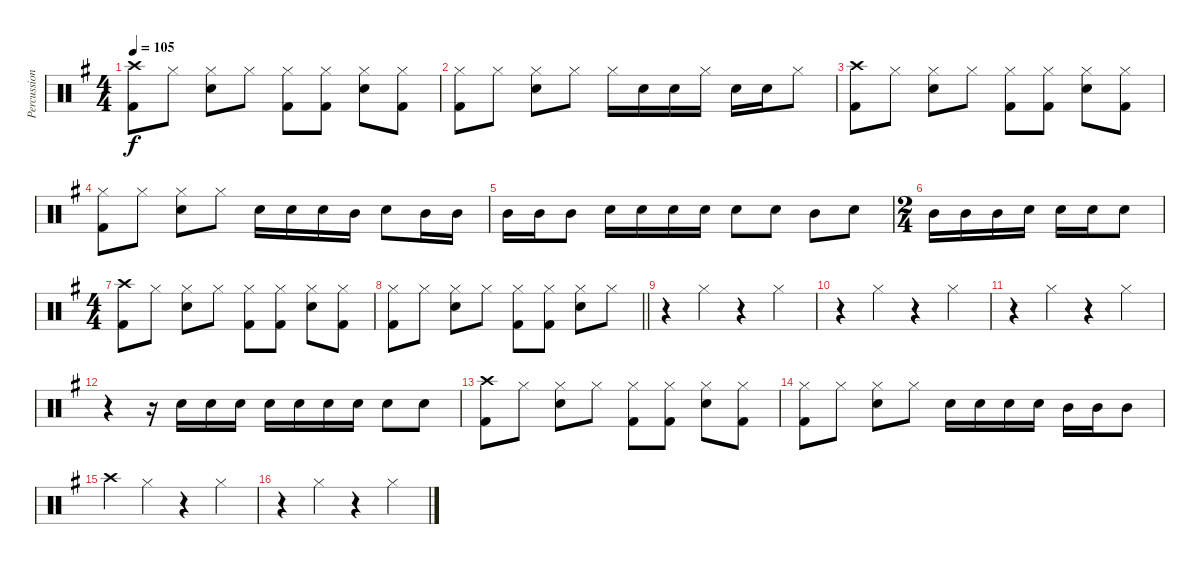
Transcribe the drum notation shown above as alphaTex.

\track ("Percussion" "Percussion") {instrument percussion}
\staff {score}
\articulation defaults
\ts (4 4)
\tempo 105
\clef neutral
\ks g
("Crash high (hit)" "Kick (hit) 2").8{dy f} "Hi-Hat (closed)".8 ("Hi-Hat (closed)" "Snare (hit) 2").8 "Hi-Hat (closed)".8 ("Hi-Hat (closed)" "Kick (hit) 2").8 ("Hi-Hat (closed)" "Kick (hit) 2").8 ("Hi-Hat (closed)" "Snare (hit) 2").8 ("Hi-Hat (closed)" "Kick (hit) 2").8 |
("Hi-Hat (closed)" "Kick (hit) 2").8 "Hi-Hat (closed)".8 ("Hi-Hat (closed)" "Snare (hit) 2").8 "Hi-Hat (closed)".8 "Hi-Hat (closed)".16 "Snare (hit) 2".16 "Snare (hit) 2".16 "Hi-Hat (closed)".16 "Snare (hit) 2".16 "Snare (hit) 2".16 "Hi-Hat (closed)".8 |
("Crash high (hit)" "Kick (hit) 2").8 "Hi-Hat (closed)".8 ("Hi-Hat (closed)" "Snare (hit) 2").8 "Hi-Hat (closed)".8 ("Hi-Hat (closed)" "Kick (hit) 2").8 ("Hi-Hat (closed)" "Kick (hit) 2").8 ("Hi-Hat (closed)" "Snare (hit) 2").8 ("Hi-Hat (closed)" "Kick (hit) 2").8 |
("Hi-Hat (closed)" "Kick (hit) 2").8 "Hi-Hat (closed)".8 ("Hi-Hat (closed)" "Snare (hit) 2").8 "Hi-Hat (closed)".8 "Snare (hit) 2".16 "Snare (hit) 2".16 "Snare (hit) 2".16 "Mid Tom (hit)".16 "Snare (hit) 2".8 "Mid Tom (hit)".16 "Mid Tom (hit)".16 |
"Mid Tom (hit)".16 "Mid Tom (hit)".16 "Mid Tom (hit)".8 "Snare (hit) 2".16 "Snare (hit) 2".16 "Snare (hit) 2".16 "Snare (hit) 2".16 "Snare (hit) 2".8 "Snare (hit) 2".8 "Mid Tom (hit)".8 "Snare (hit) 2".8 |
\ts (2 4)
"Mid Tom (hit)".16 "Mid Tom (hit)".16 "Mid Tom (hit)".16 "Snare (hit) 2".16 "Snare (hit) 2".16 "Snare (hit) 2".16 "Snare (hit) 2".8 |
\ts (4 4)
("Crash high (hit)" "Kick (hit) 2").8 "Hi-Hat (closed)".8 ("Hi-Hat (closed)" "Snare (hit) 2").8 "Hi-Hat (closed)".8 ("Hi-Hat (closed)" "Kick (hit) 2").8 ("Hi-Hat (closed)" "Kick (hit) 2").8 ("Hi-Hat (closed)" "Snare (hit) 2").8 ("Hi-Hat (closed)" "Kick (hit) 2").8 |
\barLineRight lightlight
("Hi-Hat (closed)" "Kick (hit) 2").8 "Hi-Hat (closed)".8 ("Hi-Hat (closed)" "Snare (hit) 2").8 "Hi-Hat (closed)".8 ("Hi-Hat (closed)" "Kick (hit) 2").8 ("Hi-Hat (closed)" "Kick (hit) 2").8 ("Hi-Hat (closed)" "Snare (hit) 2").8 "Hi-Hat (closed)".8 |
r.4 "Hi-Hat (closed)".4 r.4 "Hi-Hat (closed)".4 |
r.4 "Hi-Hat (closed)".4 r.4 "Hi-Hat (closed)".4 |
r.4 "Hi-Hat (closed)".4 r.4 "Hi-Hat (closed)".4 |
r.4 r.16 "Snare (hit) 2".16 "Snare (hit) 2".16 "Snare (hit) 2".16 "Snare (hit) 2".16 "Snare (hit) 2".16 "Snare (hit) 2".16 "Snare (hit) 2".16 "Snare (hit) 2".8 "Snare (hit) 2".8 |
("Crash high (hit)" "Kick (hit) 2").8 "Hi-Hat (closed)".8 ("Hi-Hat (closed)" "Snare (hit) 2").8 "Hi-Hat (closed)".8 ("Hi-Hat (closed)" "Kick (hit) 2").8 ("Hi-Hat (closed)" "Kick (hit) 2").8 ("Hi-Hat (closed)" "Snare (hit) 2").8 ("Hi-Hat (closed)" "Kick (hit) 2").8 |
("Hi-Hat (closed)" "Kick (hit) 2").8 "Hi-Hat (closed)".8 ("Hi-Hat (closed)" "Snare (hit) 2").8 "Hi-Hat (closed)".8 "Snare (hit) 2".16 "Snare (hit) 2".16 "Snare (hit) 2".16 "Snare (hit) 2".16 "Mid Tom (hit)".16 "Mid Tom (hit)".16 "Mid Tom (hit)".8 |
"Crash high (hit)".4 "Hi-Hat (closed)".4 r.4 "Hi-Hat (closed)".4 |
r.4 "Hi-Hat (closed)".4 r.4 "Hi-Hat (closed)".4
